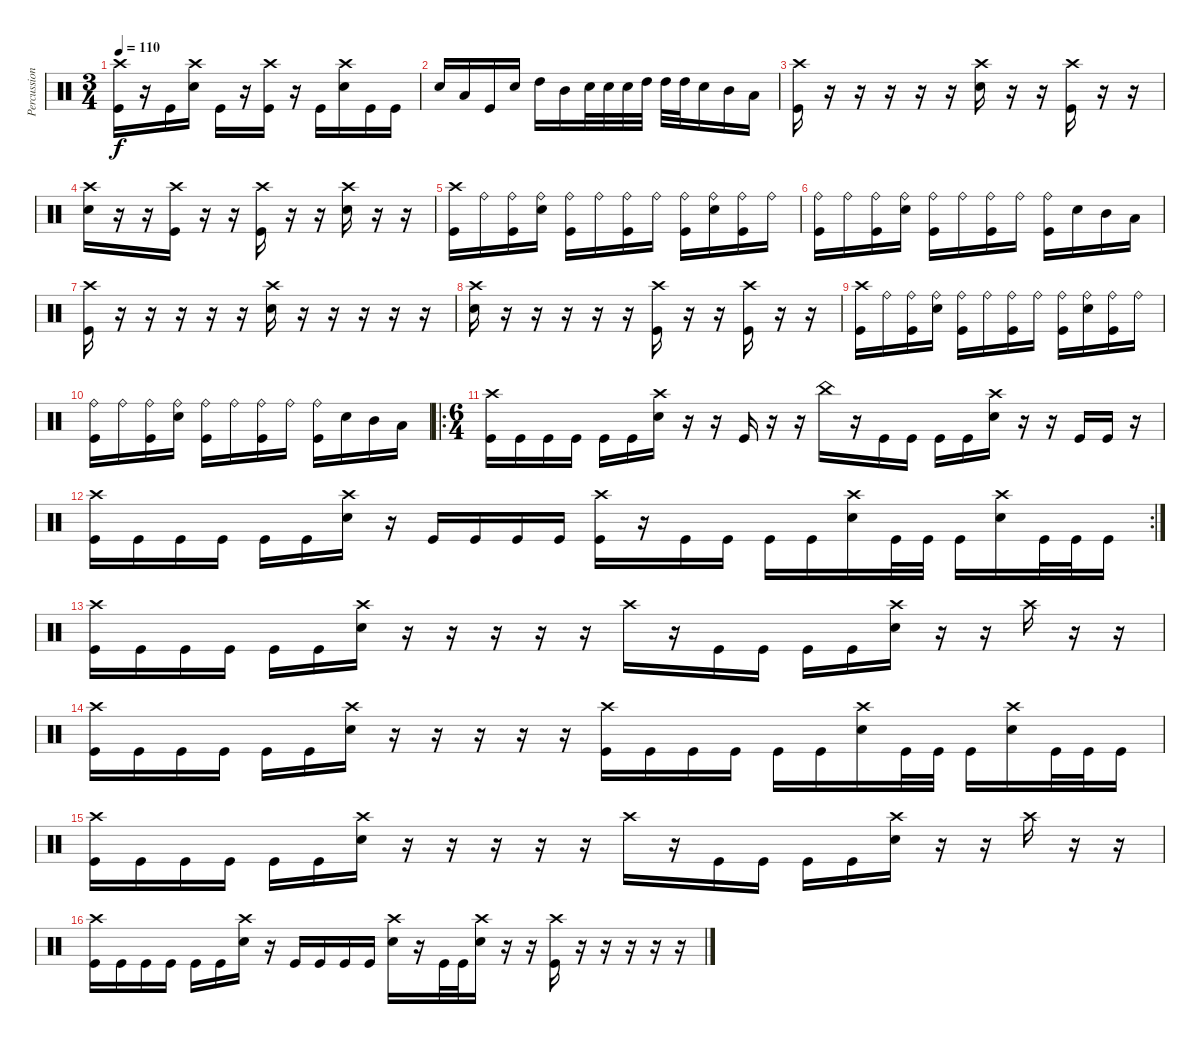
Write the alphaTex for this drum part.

\track ("Percussion" "Percussion") {instrument percussion}
\staff {score}
\articulation defaults
\ts (3 4)
\tempo 110
\clef neutral
\ks c
("Crash high (hit)" "Kick (hit)").16{dy f} r.16 "Kick (hit)".16 ("Crash high (hit)" "Electric Snare (hit)").16 "Kick (hit)".16 r.16 ("Crash high (hit)" "Kick (hit)").16 r.16 "Kick (hit)".16 ("Crash high (hit)" "Electric Snare (hit)").16 "Kick (hit)".16 "Kick (hit)".16 |
"Electric Snare (hit)".16 "Low Tom (hit)".16 "Kick (hit)".16 "Electric Snare (hit)".16 "High Tom (hit)".16 "Mid Tom (hit)".16 "Electric Snare (hit)".32 "Electric Snare (hit)".32 "Electric Snare (hit)".32 "High Tom (hit)".32 "High Tom (hit)".32 "High Tom (hit)".32 "Electric Snare (hit)".16 "Mid Tom (hit)".16 "Low Tom (hit)".16 |
("Crash high (hit)" "Kick (hit)").16 r.16 r.16 r.16 r.16 r.16 ("Crash high (hit)" "Electric Snare (hit)").16 r.16 r.16 ("Crash high (hit)" "Kick (hit)").16 r.16 r.16 |
("Crash high (hit)" "Electric Snare (hit)").16 r.16 r.16 ("Crash high (hit)" "Kick (hit)").16 r.16 r.16 ("Crash high (hit)" "Kick (hit)").16 r.16 r.16 ("Crash high (hit)" "Electric Snare (hit)").16 r.16 r.16 |
("Crash high (hit)" "Kick (hit)").16 "Ride (bell)".16 ("Ride (bell)" "Kick (hit)").16 ("Ride (bell)" "Electric Snare (hit)").16 ("Ride (bell)" "Kick (hit)").16 "Ride (bell)".16 ("Ride (bell)" "Kick (hit)").16 "Ride (bell)".16 ("Ride (bell)" "Kick (hit)").16 ("Ride (bell)" "Electric Snare (hit)").16 ("Ride (bell)" "Kick (hit)").16 "Ride (bell)".16 |
("Ride (bell)" "Kick (hit)").16 "Ride (bell)".16 ("Ride (bell)" "Kick (hit)").16 ("Ride (bell)" "Electric Snare (hit)").16 ("Ride (bell)" "Kick (hit)").16 "Ride (bell)".16 ("Ride (bell)" "Kick (hit)").16 "Ride (bell)".16 ("Ride (bell)" "Kick (hit)").16 "Electric Snare (hit)".16 "Mid Tom (hit)".16 "Low Tom (hit)".16 |
("Crash high (hit)" "Kick (hit)").16 r.16 r.16 r.16 r.16 r.16 ("Crash high (hit)" "Electric Snare (hit)").16 r.16 r.16 r.16 r.16 r.16 |
("Crash high (hit)" "Electric Snare (hit)").16 r.16 r.16 r.16 r.16 r.16 ("Crash high (hit)" "Kick (hit)").16 r.16 r.16 ("Crash high (hit)" "Kick (hit)").16 r.16 r.16 |
("Crash high (hit)" "Kick (hit)").16 "Ride (bell)".16 ("Ride (bell)" "Kick (hit)").16 ("Ride (bell)" "Electric Snare (hit)").16 ("Ride (bell)" "Kick (hit)").16 "Ride (bell)".16 ("Ride (bell)" "Kick (hit)").16 "Ride (bell)".16 ("Ride (bell)" "Kick (hit)").16 ("Ride (bell)" "Electric Snare (hit)").16 ("Ride (bell)" "Kick (hit)").16 "Ride (bell)".16 |
("Ride (bell)" "Kick (hit)").16 "Ride (bell)".16 ("Ride (bell)" "Kick (hit)").16 ("Ride (bell)" "Electric Snare (hit)").16 ("Ride (bell)" "Kick (hit)").16 "Ride (bell)".16 ("Ride (bell)" "Kick (hit)").16 "Ride (bell)".16 ("Ride (bell)" "Kick (hit)").16 "Electric Snare (hit)".16 "Mid Tom (hit)".16 "Low Tom (hit)".16 |
\ro
\ts (6 4)
("Crash high (hit)" "Kick (hit)").16 "Kick (hit)".16 "Kick (hit)".16 "Kick (hit)".16 "Kick (hit)".16 "Kick (hit)".16 ("Crash high (hit)" "Electric Snare (hit)").16 r.16 r.16 "Kick (hit)".16 r.16 r.16 "China (hit)".16 r.16 "Kick (hit)".16 "Kick (hit)".16 "Kick (hit)".16 "Kick (hit)".16 ("Crash high (hit)" "Electric Snare (hit)").16 r.16 r.16 "Kick (hit)".16 "Kick (hit)".16 r.16 |
\rc 2
("Crash high (hit)" "Kick (hit)").16 "Kick (hit)".16 "Kick (hit)".16 "Kick (hit)".16 "Kick (hit)".16 "Kick (hit)".16 ("Crash high (hit)" "Electric Snare (hit)").16 r.16 "Kick (hit)".16 "Kick (hit)".16 "Kick (hit)".16 "Kick (hit)".16 ("Crash high (hit)" "Kick (hit)").16 r.16 "Kick (hit)".16 "Kick (hit)".16 "Kick (hit)".16 "Kick (hit)".16 ("Crash high (hit)" "Electric Snare (hit)").16 "Kick (hit)".32 "Kick (hit)".32 "Kick (hit)".16 ("Crash high (hit)" "Electric Snare (hit)").16 "Kick (hit)".32 "Kick (hit)".32 "Kick (hit)".16 |
("Crash high (hit)" "Kick (hit)").16 "Kick (hit)".16 "Kick (hit)".16 "Kick (hit)".16 "Kick (hit)".16 "Kick (hit)".16 ("Crash high (hit)" "Electric Snare (hit)").16 r.16 r.16 r.16 r.16 r.16 "Crash high (hit)".16 r.16 "Kick (hit)".16 "Kick (hit)".16 "Kick (hit)".16 "Kick (hit)".16 ("Crash high (hit)" "Electric Snare (hit)").16 r.16 r.16 "Crash high (hit)".16 r.16 r.16 |
("Crash high (hit)" "Kick (hit)").16 "Kick (hit)".16 "Kick (hit)".16 "Kick (hit)".16 "Kick (hit)".16 "Kick (hit)".16 ("Crash high (hit)" "Electric Snare (hit)").16 r.16 r.16 r.16 r.16 r.16 ("Crash high (hit)" "Kick (hit)").16 "Kick (hit)".16 "Kick (hit)".16 "Kick (hit)".16 "Kick (hit)".16 "Kick (hit)".16 ("Crash high (hit)" "Electric Snare (hit)").16 "Kick (hit)".32 "Kick (hit)".32 "Kick (hit)".16 ("Crash high (hit)" "Electric Snare (hit)").16 "Kick (hit)".32 "Kick (hit)".32 "Kick (hit)".16 |
("Crash high (hit)" "Kick (hit)").16 "Kick (hit)".16 "Kick (hit)".16 "Kick (hit)".16 "Kick (hit)".16 "Kick (hit)".16 ("Crash high (hit)" "Electric Snare (hit)").16 r.16 r.16 r.16 r.16 r.16 "Crash high (hit)".16 r.16 "Kick (hit)".16 "Kick (hit)".16 "Kick (hit)".16 "Kick (hit)".16 ("Crash high (hit)" "Electric Snare (hit)").16 r.16 r.16 "Crash high (hit)".16 r.16 r.16 |
("Crash high (hit)" "Kick (hit)").16 "Kick (hit)".16 "Kick (hit)".16 "Kick (hit)".16 "Kick (hit)".16 "Kick (hit)".16 ("Crash high (hit)" "Electric Snare (hit)").16 r.16 "Kick (hit)".16 "Kick (hit)".16 "Kick (hit)".16 "Kick (hit)".16 ("Crash high (hit)" "Electric Snare (hit)").16 r.16 "Kick (hit)".32 "Kick (hit)".32 ("Crash high (hit)" "Electric Snare (hit)").16 r.16 r.16 ("Crash high (hit)" "Kick (hit)").16 r.16 r.16 r.16 r.16 r.16
